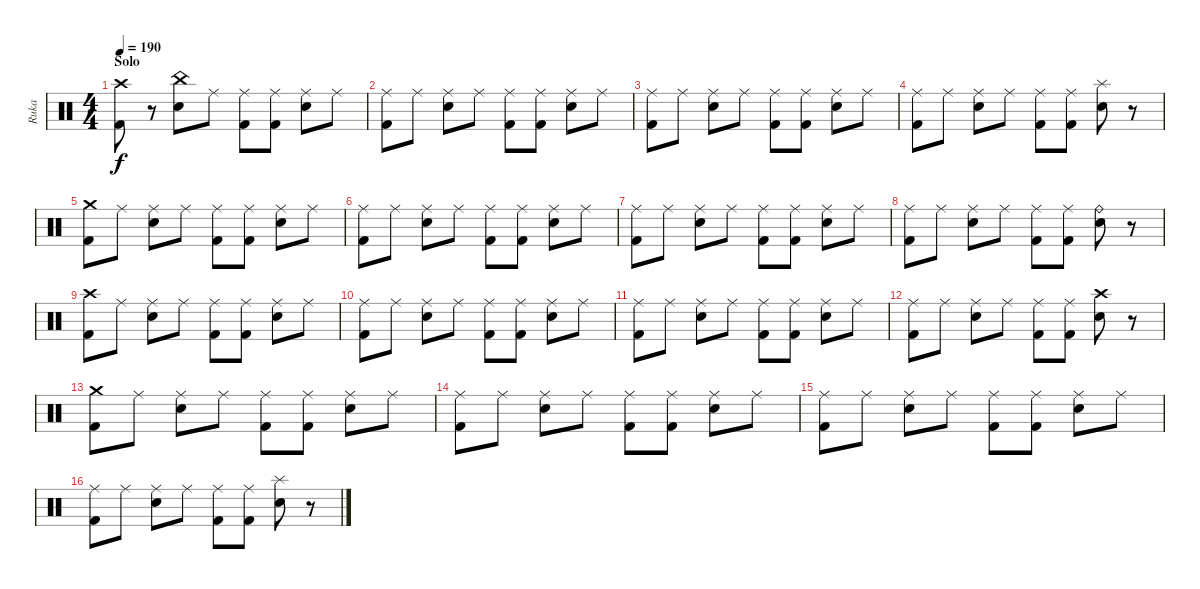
\track ("Ruka " "Ruka ") {instrument percussion}
\staff {score}
\articulation defaults
\ts (4 4)
\section ("" "Solo")
\tempo 190
\clef neutral
\ks c
("Crash high (hit)" "Kick (hit) 2").8{dy f} r.8 ("China (hit)" "Electric Snare (hit)").8 "Ride (middle)".8 ("Ride (middle)" "Kick (hit) 2").8 ("Ride (middle)" "Kick (hit) 2").8 ("Ride (middle)" "Electric Snare (hit)").8 "Ride (middle)".8 |
("Ride (middle)" "Kick (hit) 2").8 "Ride (middle)".8 ("Ride (middle)" "Electric Snare (hit)").8 "Ride (middle)".8 ("Ride (middle)" "Kick (hit) 2").8 ("Ride (middle)" "Kick (hit) 2").8 ("Ride (middle)" "Electric Snare (hit)").8 "Ride (middle)".8 |
("Ride (middle)" "Kick (hit) 2").8 "Ride (middle)".8 ("Ride (middle)" "Electric Snare (hit)").8 "Ride (middle)".8 ("Ride (middle)" "Kick (hit) 2").8 ("Ride (middle)" "Kick (hit) 2").8 ("Ride (middle)" "Electric Snare (hit)").8 "Ride (middle)".8 |
("Ride (middle)" "Kick (hit) 2").8 "Ride (middle)".8 ("Ride (middle)" "Electric Snare (hit)").8 "Ride (middle)".8 ("Ride (middle)" "Kick (hit) 2").8 ("Ride (middle)" "Kick (hit) 2").8 ("Splash (hit)" "Electric Snare (hit)").8 r.8 |
("Crash medium (hit)" "Kick (hit) 2").8 "Ride (middle)".8 ("Ride (middle)" "Electric Snare (hit)").8 "Ride (middle)".8 ("Ride (middle)" "Kick (hit) 2").8 ("Ride (middle)" "Kick (hit) 2").8 ("Ride (middle)" "Electric Snare (hit)").8 "Ride (middle)".8 |
("Ride (middle)" "Kick (hit) 2").8 "Ride (middle)".8 ("Ride (middle)" "Electric Snare (hit)").8 "Ride (middle)".8 ("Ride (middle)" "Kick (hit) 2").8 ("Ride (middle)" "Kick (hit) 2").8 ("Ride (middle)" "Electric Snare (hit)").8 "Ride (middle)".8 |
("Ride (middle)" "Kick (hit) 2").8 "Ride (middle)".8 ("Ride (middle)" "Electric Snare (hit)").8 "Ride (middle)".8 ("Ride (middle)" "Kick (hit) 2").8 ("Ride (middle)" "Kick (hit) 2").8 ("Ride (middle)" "Electric Snare (hit)").8 "Ride (middle)".8 |
("Ride (middle)" "Kick (hit) 2").8 "Ride (middle)".8 ("Ride (middle)" "Electric Snare (hit)").8 "Ride (middle)".8 ("Ride (middle)" "Kick (hit) 2").8 ("Ride (middle)" "Kick (hit) 2").8 ("Ride (bell)" "Electric Snare (hit)").8 r.8 |
("Crash high (hit)" "Kick (hit) 2").8 "Ride (middle)".8 ("Ride (middle)" "Electric Snare (hit)").8 "Ride (middle)".8 ("Ride (middle)" "Kick (hit) 2").8 ("Ride (middle)" "Kick (hit) 2").8 ("Ride (middle)" "Electric Snare (hit)").8 "Ride (middle)".8 |
("Ride (middle)" "Kick (hit) 2").8 "Ride (middle)".8 ("Ride (middle)" "Electric Snare (hit)").8 "Ride (middle)".8 ("Ride (middle)" "Kick (hit) 2").8 ("Ride (middle)" "Kick (hit) 2").8 ("Ride (middle)" "Electric Snare (hit)").8 "Ride (middle)".8 |
("Ride (middle)" "Kick (hit) 2").8 "Ride (middle)".8 ("Ride (middle)" "Electric Snare (hit)").8 "Ride (middle)".8 ("Ride (middle)" "Kick (hit) 2").8 ("Ride (middle)" "Kick (hit) 2").8 ("Ride (middle)" "Electric Snare (hit)").8 "Ride (middle)".8 |
("Ride (middle)" "Kick (hit) 2").8 "Ride (middle)".8 ("Ride (middle)" "Electric Snare (hit)").8 "Ride (middle)".8 ("Ride (middle)" "Kick (hit) 2").8 ("Ride (middle)" "Kick (hit) 2").8 ("Crash high (hit)" "Electric Snare (hit)").8 r.8 |
("Crash medium (hit)" "Kick (hit) 2").8 "Ride (middle)".8 ("Ride (middle)" "Electric Snare (hit)").8 "Ride (middle)".8 ("Ride (middle)" "Kick (hit) 2").8 ("Ride (middle)" "Kick (hit) 2").8 ("Ride (middle)" "Electric Snare (hit)").8 "Ride (middle)".8 |
("Ride (middle)" "Kick (hit) 2").8 "Ride (middle)".8 ("Ride (middle)" "Electric Snare (hit)").8 "Ride (middle)".8 ("Ride (middle)" "Kick (hit) 2").8 ("Ride (middle)" "Kick (hit) 2").8 ("Ride (middle)" "Electric Snare (hit)").8 "Ride (middle)".8 |
("Ride (middle)" "Kick (hit) 2").8 "Ride (middle)".8 ("Ride (middle)" "Electric Snare (hit)").8 "Ride (middle)".8 ("Ride (middle)" "Kick (hit) 2").8 ("Ride (middle)" "Kick (hit) 2").8 ("Ride (middle)" "Electric Snare (hit)").8 "Ride (middle)".8 |
("Ride (middle)" "Kick (hit) 2").8 "Ride (middle)".8 ("Ride (middle)" "Electric Snare (hit)").8 "Ride (middle)".8 ("Ride (middle)" "Kick (hit) 2").8 ("Ride (middle)" "Kick (hit) 2").8 ("Splash (hit)" "Electric Snare (hit)").8 r.8
